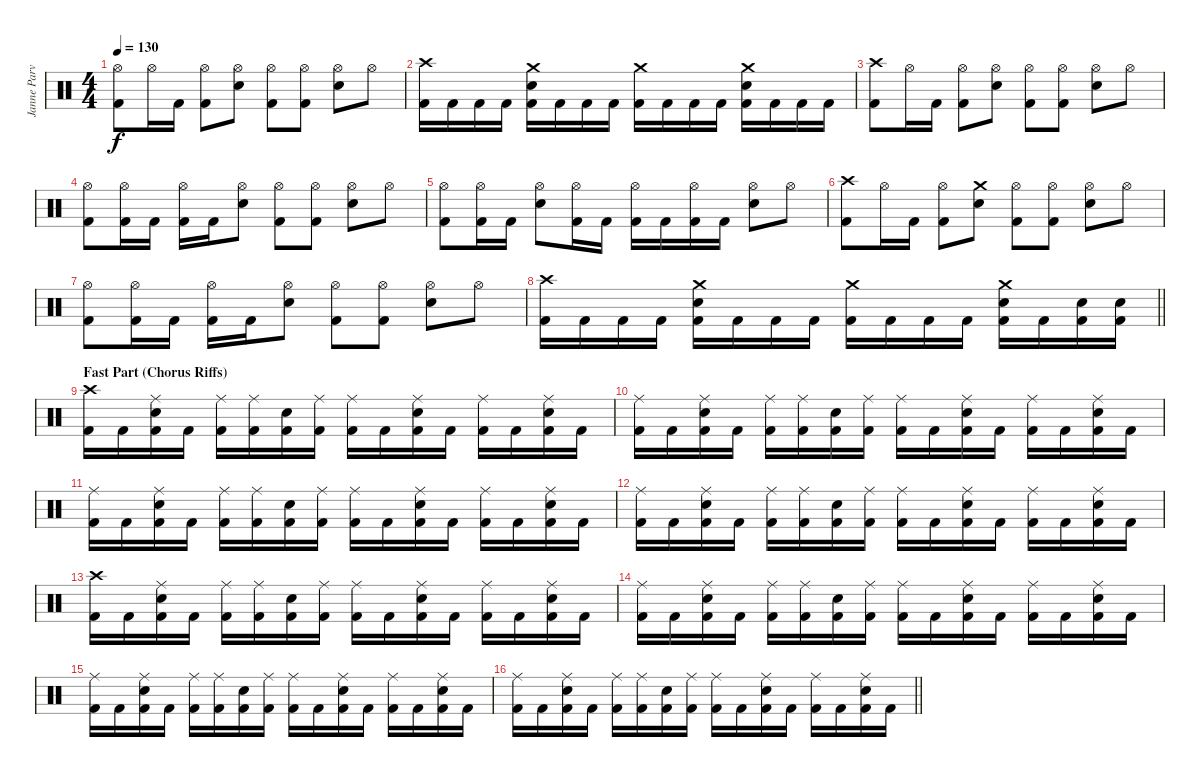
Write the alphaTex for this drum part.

\track ("Janne Parviainen" "Janne Parv") {instrument percussion}
\staff {score}
\articulation defaults
\ts (4 4)
\tempo 130
\clef neutral
\ks c
("Hi-Hat (open)" "Kick (hit) 2").8{dy f} "Hi-Hat (open)".16 "Kick (hit) 2".16 ("Hi-Hat (open)" "Kick (hit) 2").8 ("Hi-Hat (open)" "Electric Snare (hit)").8 ("Hi-Hat (open)" "Kick (hit) 2").8 ("Hi-Hat (open)" "Kick (hit) 2").8 ("Hi-Hat (open)" "Electric Snare (hit)").8 "Hi-Hat (open)".8 |
("Crash high (hit)" "Kick (hit) 2").16 "Kick (hit) 2".16 "Kick (hit) 2".16 "Kick (hit) 2".16 ("Crash medium (hit)" "Electric Snare (hit)" "Kick (hit) 2").16 "Kick (hit) 2".16 "Kick (hit) 2".16 "Kick (hit) 2".16 ("Crash medium (hit)" "Kick (hit) 2").16 "Kick (hit) 2".16 "Kick (hit) 2".16 "Kick (hit) 2".16 ("Crash medium (hit)" "Electric Snare (hit)" "Kick (hit) 2").16 "Kick (hit) 2".16 "Kick (hit) 2".16 "Kick (hit) 2".16 |
("Crash high (hit)" "Kick (hit) 2").8 "Hi-Hat (open)".16 "Kick (hit) 2".16 ("Hi-Hat (open)" "Kick (hit) 2").8 ("Hi-Hat (open)" "Electric Snare (hit)").8 ("Hi-Hat (open)" "Kick (hit) 2").8 ("Hi-Hat (open)" "Kick (hit) 2").8 ("Hi-Hat (open)" "Electric Snare (hit)").8 "Hi-Hat (open)".8 |
("Hi-Hat (open)" "Kick (hit) 2").8 ("Hi-Hat (open)" "Kick (hit) 2").16 "Kick (hit) 2".16 ("Hi-Hat (open)" "Kick (hit) 2").16 "Kick (hit) 2".16 ("Hi-Hat (open)" "Electric Snare (hit)").8 ("Hi-Hat (open)" "Kick (hit) 2").8 ("Hi-Hat (open)" "Kick (hit) 2").8 ("Hi-Hat (open)" "Electric Snare (hit)").8 "Hi-Hat (open)".8 |
("Hi-Hat (open)" "Kick (hit) 2").8 ("Hi-Hat (open)" "Kick (hit) 2").16 "Kick (hit) 2".16 ("Hi-Hat (open)" "Electric Snare (hit)").8 ("Hi-Hat (open)" "Kick (hit) 2").16 "Kick (hit) 2".16 ("Hi-Hat (open)" "Kick (hit) 2").16 "Kick (hit) 2".16 ("Hi-Hat (open)" "Kick (hit) 2").16 "Kick (hit) 2".16 ("Hi-Hat (open)" "Electric Snare (hit)").8 "Hi-Hat (open)".8 |
("Crash high (hit)" "Kick (hit) 2").8 "Hi-Hat (open)".16 "Kick (hit) 2".16 ("Hi-Hat (open)" "Kick (hit) 2").8 ("Crash medium (hit)" "Electric Snare (hit)").8 ("Hi-Hat (open)" "Kick (hit) 2").8 ("Hi-Hat (open)" "Kick (hit) 2").8 ("Hi-Hat (open)" "Electric Snare (hit)").8 "Hi-Hat (open)".8 |
("Hi-Hat (open)" "Kick (hit) 2").8 ("Hi-Hat (open)" "Kick (hit) 2").16 "Kick (hit) 2".16 ("Hi-Hat (open)" "Kick (hit) 2").16 "Kick (hit) 2".16 ("Hi-Hat (open)" "Electric Snare (hit)").8 ("Hi-Hat (open)" "Kick (hit) 2").8 ("Hi-Hat (open)" "Kick (hit) 2").8 ("Hi-Hat (open)" "Electric Snare (hit)").8 "Hi-Hat (open)".8 |
\barLineRight lightlight
("Crash high (hit)" "Kick (hit) 2").16 "Kick (hit) 2".16 "Kick (hit) 2".16 "Kick (hit) 2".16 ("Crash medium (hit)" "Electric Snare (hit)" "Kick (hit) 2").16 "Kick (hit) 2".16 "Kick (hit) 2".16 "Kick (hit) 2".16 ("Crash medium (hit)" "Kick (hit) 2").16 "Kick (hit) 2".16 "Kick (hit) 2".16 "Kick (hit) 2".16 ("Crash medium (hit)" "Electric Snare (hit)" "Kick (hit) 2").16 "Kick (hit) 2".16 ("Electric Snare (hit)" "Kick (hit) 2").16 ("Electric Snare (hit)" "Kick (hit) 2").16 |
\section ("" "Fast Part (Chorus Riffs)")
("Crash high (hit)" "Kick (hit) 2").16 "Kick (hit) 2".16 ("Ride (middle)" "Electric Snare (hit)" "Kick (hit) 2").16 "Kick (hit) 2".16 ("Ride (middle)" "Kick (hit) 2").16 ("Ride (middle)" "Kick (hit) 2").16 ("Electric Snare (hit)" "Kick (hit) 2").16 ("Ride (middle)" "Kick (hit) 2").16 ("Ride (middle)" "Kick (hit) 2").16 "Kick (hit) 2".16 ("Ride (middle)" "Electric Snare (hit)" "Kick (hit) 2").16 "Kick (hit) 2".16 ("Ride (middle)" "Kick (hit) 2").16 "Kick (hit) 2".16 ("Ride (middle)" "Electric Snare (hit)" "Kick (hit) 2").16 "Kick (hit) 2".16 |
("Ride (middle)" "Kick (hit) 2").16 "Kick (hit) 2".16 ("Ride (middle)" "Electric Snare (hit)" "Kick (hit) 2").16 "Kick (hit) 2".16 ("Ride (middle)" "Kick (hit) 2").16 ("Ride (middle)" "Kick (hit) 2").16 ("Electric Snare (hit)" "Kick (hit) 2").16 ("Ride (middle)" "Kick (hit) 2").16 ("Ride (middle)" "Kick (hit) 2").16 "Kick (hit) 2".16 ("Ride (middle)" "Electric Snare (hit)" "Kick (hit) 2").16 "Kick (hit) 2".16 ("Ride (middle)" "Kick (hit) 2").16 "Kick (hit) 2".16 ("Ride (middle)" "Electric Snare (hit)" "Kick (hit) 2").16 "Kick (hit) 2".16 |
("Ride (middle)" "Kick (hit) 2").16 "Kick (hit) 2".16 ("Ride (middle)" "Electric Snare (hit)" "Kick (hit) 2").16 "Kick (hit) 2".16 ("Ride (middle)" "Kick (hit) 2").16 ("Ride (middle)" "Kick (hit) 2").16 ("Electric Snare (hit)" "Kick (hit) 2").16 ("Ride (middle)" "Kick (hit) 2").16 ("Ride (middle)" "Kick (hit) 2").16 "Kick (hit) 2".16 ("Ride (middle)" "Electric Snare (hit)" "Kick (hit) 2").16 "Kick (hit) 2".16 ("Ride (middle)" "Kick (hit) 2").16 "Kick (hit) 2".16 ("Ride (middle)" "Electric Snare (hit)" "Kick (hit) 2").16 "Kick (hit) 2".16 |
("Ride (middle)" "Kick (hit) 2").16 "Kick (hit) 2".16 ("Ride (middle)" "Electric Snare (hit)" "Kick (hit) 2").16 "Kick (hit) 2".16 ("Ride (middle)" "Kick (hit) 2").16 ("Ride (middle)" "Kick (hit) 2").16 ("Electric Snare (hit)" "Kick (hit) 2").16 ("Ride (middle)" "Kick (hit) 2").16 ("Ride (middle)" "Kick (hit) 2").16 "Kick (hit) 2".16 ("Ride (middle)" "Electric Snare (hit)" "Kick (hit) 2").16 "Kick (hit) 2".16 ("Ride (middle)" "Kick (hit) 2").16 "Kick (hit) 2".16 ("Ride (middle)" "Electric Snare (hit)" "Kick (hit) 2").16 "Kick (hit) 2".16 |
("Crash high (hit)" "Kick (hit) 2").16 "Kick (hit) 2".16 ("Ride (middle)" "Electric Snare (hit)" "Kick (hit) 2").16 "Kick (hit) 2".16 ("Ride (middle)" "Kick (hit) 2").16 ("Ride (middle)" "Kick (hit) 2").16 ("Electric Snare (hit)" "Kick (hit) 2").16 ("Ride (middle)" "Kick (hit) 2").16 ("Ride (middle)" "Kick (hit) 2").16 "Kick (hit) 2".16 ("Ride (middle)" "Electric Snare (hit)" "Kick (hit) 2").16 "Kick (hit) 2".16 ("Ride (middle)" "Kick (hit) 2").16 "Kick (hit) 2".16 ("Ride (middle)" "Electric Snare (hit)" "Kick (hit) 2").16 "Kick (hit) 2".16 |
("Ride (middle)" "Kick (hit) 2").16 "Kick (hit) 2".16 ("Ride (middle)" "Electric Snare (hit)" "Kick (hit) 2").16 "Kick (hit) 2".16 ("Ride (middle)" "Kick (hit) 2").16 ("Ride (middle)" "Kick (hit) 2").16 ("Electric Snare (hit)" "Kick (hit) 2").16 ("Ride (middle)" "Kick (hit) 2").16 ("Ride (middle)" "Kick (hit) 2").16 "Kick (hit) 2".16 ("Ride (middle)" "Electric Snare (hit)" "Kick (hit) 2").16 "Kick (hit) 2".16 ("Ride (middle)" "Kick (hit) 2").16 "Kick (hit) 2".16 ("Ride (middle)" "Electric Snare (hit)" "Kick (hit) 2").16 "Kick (hit) 2".16 |
("Ride (middle)" "Kick (hit) 2").16 "Kick (hit) 2".16 ("Ride (middle)" "Electric Snare (hit)" "Kick (hit) 2").16 "Kick (hit) 2".16 ("Ride (middle)" "Kick (hit) 2").16 ("Ride (middle)" "Kick (hit) 2").16 ("Electric Snare (hit)" "Kick (hit) 2").16 ("Ride (middle)" "Kick (hit) 2").16 ("Ride (middle)" "Kick (hit) 2").16 "Kick (hit) 2".16 ("Ride (middle)" "Electric Snare (hit)" "Kick (hit) 2").16 "Kick (hit) 2".16 ("Ride (middle)" "Kick (hit) 2").16 "Kick (hit) 2".16 ("Ride (middle)" "Electric Snare (hit)" "Kick (hit) 2").16 "Kick (hit) 2".16 |
\barLineRight lightlight
("Ride (middle)" "Kick (hit) 2").16 "Kick (hit) 2".16 ("Ride (middle)" "Electric Snare (hit)" "Kick (hit) 2").16 "Kick (hit) 2".16 ("Ride (middle)" "Kick (hit) 2").16 ("Ride (middle)" "Kick (hit) 2").16 ("Electric Snare (hit)" "Kick (hit) 2").16 ("Ride (middle)" "Kick (hit) 2").16 ("Ride (middle)" "Kick (hit) 2").16 "Kick (hit) 2".16 ("Ride (middle)" "Electric Snare (hit)" "Kick (hit) 2").16 "Kick (hit) 2".16 ("Ride (middle)" "Kick (hit) 2").16 "Kick (hit) 2".16 ("Ride (middle)" "Electric Snare (hit)" "Kick (hit) 2").16 "Kick (hit) 2".16
